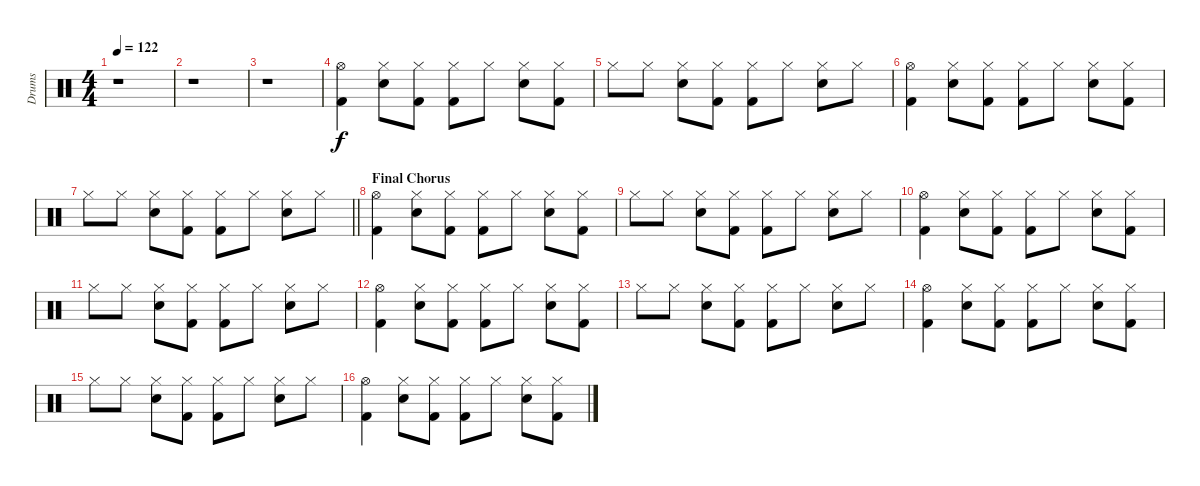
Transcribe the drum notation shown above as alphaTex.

\track ("Drums" "Drums") {instrument percussion}
\staff {score}
\articulation defaults
\ts (4 4)
\tempo 122
\clef neutral
\ks c
r.1{dy f} |
r.1 |
r.1 |
("Hi-Hat (open)" "Kick (hit) 2").4 ("Hi-Hat (closed)" "Snare (hit) 2").8 ("Hi-Hat (closed)" "Kick (hit) 2").8 ("Hi-Hat (closed)" "Kick (hit) 2").8 "Hi-Hat (closed)".8 ("Hi-Hat (closed)" "Snare (hit) 2").8 ("Hi-Hat (closed)" "Kick (hit) 2").8 |
"Hi-Hat (closed)".8 "Hi-Hat (closed)".8 ("Hi-Hat (closed)" "Snare (hit) 2").8 ("Hi-Hat (closed)" "Kick (hit) 2").8 ("Hi-Hat (closed)" "Kick (hit) 2").8 "Hi-Hat (closed)".8 ("Hi-Hat (closed)" "Snare (hit) 2").8 "Hi-Hat (closed)".8 |
("Hi-Hat (open)" "Kick (hit) 2").4 ("Hi-Hat (closed)" "Snare (hit) 2").8 ("Hi-Hat (closed)" "Kick (hit) 2").8 ("Hi-Hat (closed)" "Kick (hit) 2").8 "Hi-Hat (closed)".8 ("Hi-Hat (closed)" "Snare (hit) 2").8 ("Hi-Hat (closed)" "Kick (hit) 2").8 |
\barLineRight lightlight "Hi-Hat (closed)".8 "Hi-Hat (closed)".8
("Hi-Hat (closed)" "Snare (hit) 2").8 ("Hi-Hat (closed)" "Kick (hit) 2").8 ("Hi-Hat (closed)" "Kick (hit) 2").8 "Hi-Hat (closed)".8 ("Hi-Hat (closed)" "Snare (hit) 2").8 "Hi-Hat (closed)".8 |
\section ("" "Final Chorus")
("Hi-Hat (open)" "Kick (hit) 2").4 ("Hi-Hat (closed)" "Snare (hit) 2").8 ("Hi-Hat (closed)" "Kick (hit) 2").8 ("Hi-Hat (closed)" "Kick (hit) 2").8 "Hi-Hat (closed)".8 ("Hi-Hat (closed)" "Snare (hit) 2").8 ("Hi-Hat (closed)" "Kick (hit) 2").8 |
"Hi-Hat (closed)".8 "Hi-Hat (closed)".8 ("Hi-Hat (closed)" "Snare (hit) 2").8 ("Hi-Hat (closed)" "Kick (hit) 2").8 ("Hi-Hat (closed)" "Kick (hit) 2").8 "Hi-Hat (closed)".8 ("Hi-Hat (closed)" "Snare (hit) 2").8 "Hi-Hat (closed)".8 |
("Hi-Hat (open)" "Kick (hit) 2").4 ("Hi-Hat (closed)" "Snare (hit) 2").8 ("Hi-Hat (closed)" "Kick (hit) 2").8 ("Hi-Hat (closed)" "Kick (hit) 2").8 "Hi-Hat (closed)".8 ("Hi-Hat (closed)" "Snare (hit) 2").8 ("Hi-Hat (closed)" "Kick (hit) 2").8 |
"Hi-Hat (closed)".8 "Hi-Hat (closed)".8 ("Hi-Hat (closed)" "Snare (hit) 2").8 ("Hi-Hat (closed)" "Kick (hit) 2").8 ("Hi-Hat (closed)" "Kick (hit) 2").8 "Hi-Hat (closed)".8 ("Hi-Hat (closed)" "Snare (hit) 2").8 "Hi-Hat (closed)".8 |
("Hi-Hat (open)" "Kick (hit) 2").4 ("Hi-Hat (closed)" "Snare (hit) 2").8 ("Hi-Hat (closed)" "Kick (hit) 2").8 ("Hi-Hat (closed)" "Kick (hit) 2").8 "Hi-Hat (closed)".8 ("Hi-Hat (closed)" "Snare (hit) 2").8 ("Hi-Hat (closed)" "Kick (hit) 2").8 |
"Hi-Hat (closed)".8 "Hi-Hat (closed)".8 ("Hi-Hat (closed)" "Snare (hit) 2").8 ("Hi-Hat (closed)" "Kick (hit) 2").8 ("Hi-Hat (closed)" "Kick (hit) 2").8 "Hi-Hat (closed)".8 ("Hi-Hat (closed)" "Snare (hit) 2").8 "Hi-Hat (closed)".8 |
("Hi-Hat (open)" "Kick (hit) 2").4 ("Hi-Hat (closed)" "Snare (hit) 2").8 ("Hi-Hat (closed)" "Kick (hit) 2").8 ("Hi-Hat (closed)" "Kick (hit) 2").8 "Hi-Hat (closed)".8 ("Hi-Hat (closed)" "Snare (hit) 2").8 ("Hi-Hat (closed)" "Kick (hit) 2").8 |
"Hi-Hat (closed)".8 "Hi-Hat (closed)".8 ("Hi-Hat (closed)" "Snare (hit) 2").8 ("Hi-Hat (closed)" "Kick (hit) 2").8 ("Hi-Hat (closed)" "Kick (hit) 2").8 "Hi-Hat (closed)".8 ("Hi-Hat (closed)" "Snare (hit) 2").8 "Hi-Hat (closed)".8 |
("Hi-Hat (open)" "Kick (hit) 2").4 ("Hi-Hat (closed)" "Snare (hit) 2").8 ("Hi-Hat (closed)" "Kick (hit) 2").8 ("Hi-Hat (closed)" "Kick (hit) 2").8 "Hi-Hat (closed)".8 ("Hi-Hat (closed)" "Snare (hit) 2").8 ("Hi-Hat (closed)" "Kick (hit) 2").8
